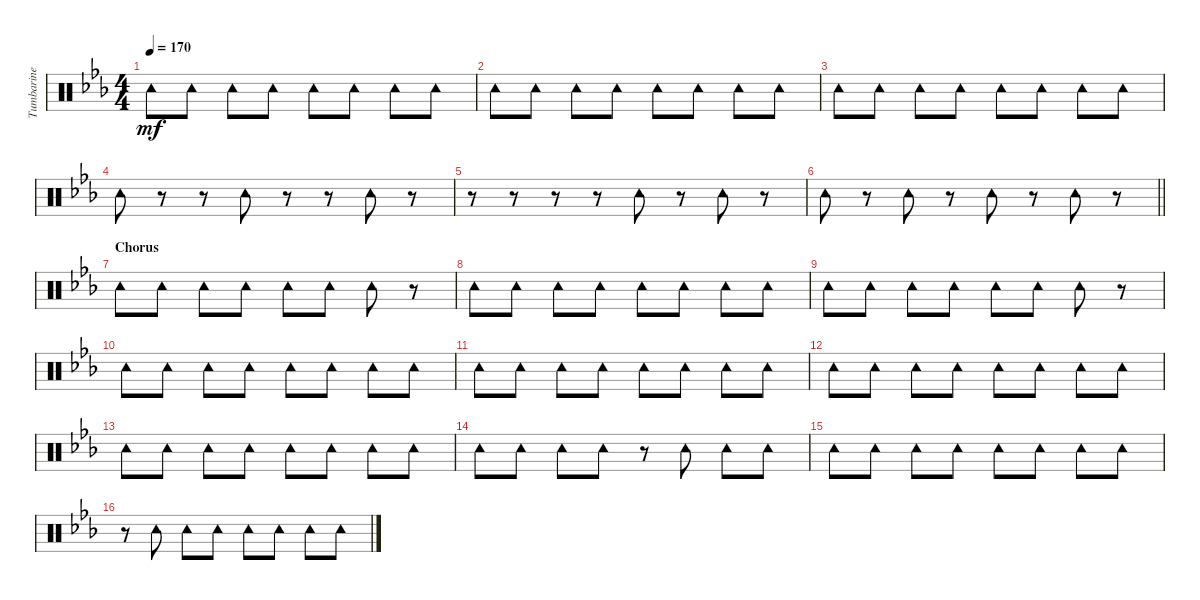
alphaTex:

\track ("Tumbarine" "Tumbarine") {solo instrument percussion}
\staff {score}
\articulation defaults
\ts (4 4)
\tempo 170
\clef neutral
\ks eb "Tambourine (hit)".8{dy mf} "Tambourine (hit)".8 "Tambourine (hit)".8 "Tambourine (hit)".8 "Tambourine (hit)".8 "Tambourine (hit)".8 "Tambourine (hit)".8 "Tambourine (hit)".8
|
"Tambourine (hit)".8 "Tambourine (hit)".8 "Tambourine (hit)".8 "Tambourine (hit)".8 "Tambourine (hit)".8 "Tambourine (hit)".8 "Tambourine (hit)".8 "Tambourine (hit)".8 |
"Tambourine (hit)".8 "Tambourine (hit)".8 "Tambourine (hit)".8 "Tambourine (hit)".8 "Tambourine (hit)".8 "Tambourine (hit)".8 "Tambourine (hit)".8 "Tambourine (hit)".8 |
"Tambourine (hit)".8 r.8 r.8 "Tambourine (hit)".8 r.8 r.8 "Tambourine (hit)".8 r.8 |
r.8 r.8 r.8 r.8 "Tambourine (hit)".8 r.8 "Tambourine (hit)".8 r.8 |
\barLineRight lightlight "Tambourine (hit)".8
r.8 "Tambourine (hit)".8 r.8 "Tambourine (hit)".8 r.8 "Tambourine (hit)".8 r.8 |
\section ("" "Chorus")
"Tambourine (hit)".8 "Tambourine (hit)".8 "Tambourine (hit)".8 "Tambourine (hit)".8 "Tambourine (hit)".8 "Tambourine (hit)".8 "Tambourine (hit)".8 r.8 |
"Tambourine (hit)".8 "Tambourine (hit)".8 "Tambourine (hit)".8 "Tambourine (hit)".8 "Tambourine (hit)".8 "Tambourine (hit)".8 "Tambourine (hit)".8 "Tambourine (hit)".8 |
"Tambourine (hit)".8 "Tambourine (hit)".8 "Tambourine (hit)".8 "Tambourine (hit)".8 "Tambourine (hit)".8 "Tambourine (hit)".8 "Tambourine (hit)".8 r.8 |
"Tambourine (hit)".8 "Tambourine (hit)".8 "Tambourine (hit)".8 "Tambourine (hit)".8 "Tambourine (hit)".8 "Tambourine (hit)".8 "Tambourine (hit)".8 "Tambourine (hit)".8 |
"Tambourine (hit)".8 "Tambourine (hit)".8 "Tambourine (hit)".8 "Tambourine (hit)".8 "Tambourine (hit)".8 "Tambourine (hit)".8 "Tambourine (hit)".8 "Tambourine (hit)".8 |
"Tambourine (hit)".8 "Tambourine (hit)".8 "Tambourine (hit)".8 "Tambourine (hit)".8 "Tambourine (hit)".8 "Tambourine (hit)".8 "Tambourine (hit)".8 "Tambourine (hit)".8 |
"Tambourine (hit)".8 "Tambourine (hit)".8 "Tambourine (hit)".8 "Tambourine (hit)".8 "Tambourine (hit)".8 "Tambourine (hit)".8 "Tambourine (hit)".8 "Tambourine (hit)".8 |
"Tambourine (hit)".8 "Tambourine (hit)".8 "Tambourine (hit)".8 "Tambourine (hit)".8 r.8 "Tambourine (hit)".8 "Tambourine (hit)".8 "Tambourine (hit)".8 |
"Tambourine (hit)".8 "Tambourine (hit)".8 "Tambourine (hit)".8 "Tambourine (hit)".8 "Tambourine (hit)".8 "Tambourine (hit)".8 "Tambourine (hit)".8 "Tambourine (hit)".8 |
r.8 "Tambourine (hit)".8 "Tambourine (hit)".8 "Tambourine (hit)".8 "Tambourine (hit)".8 "Tambourine (hit)".8 "Tambourine (hit)".8 "Tambourine (hit)".8
